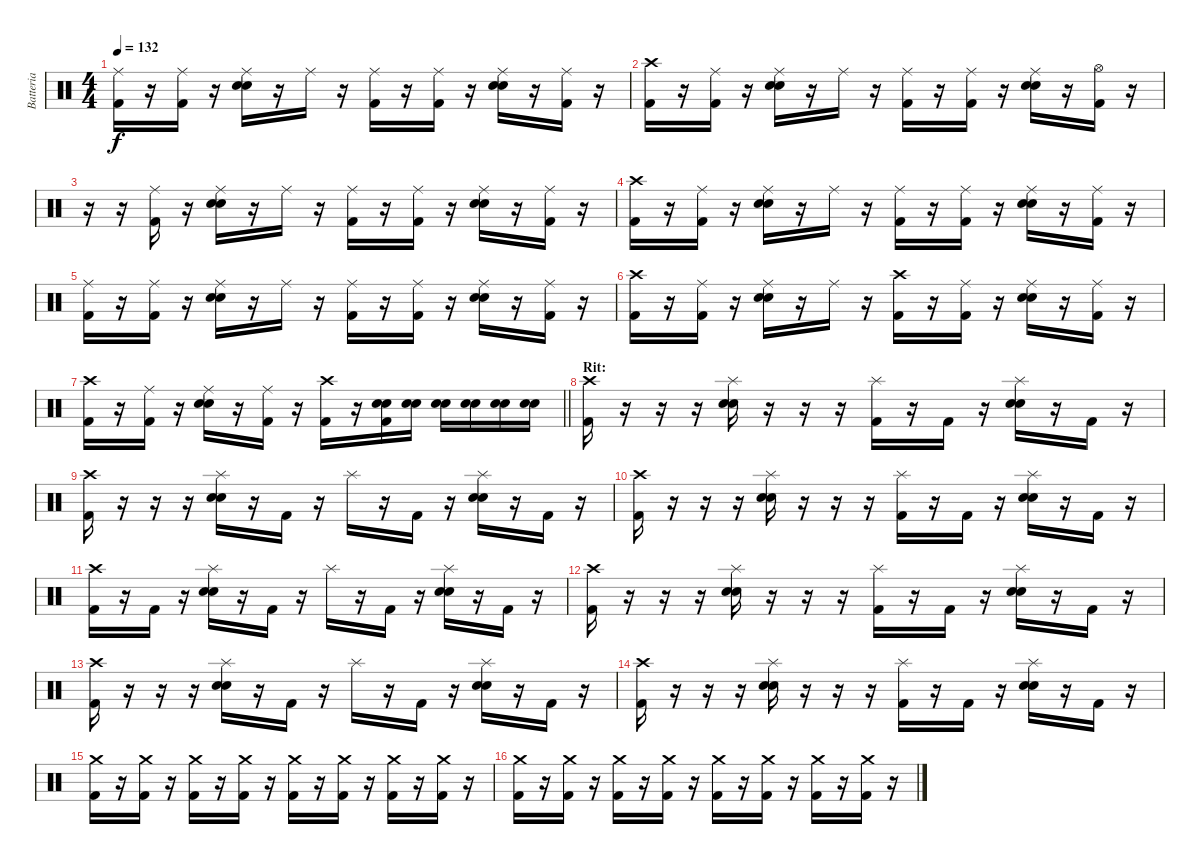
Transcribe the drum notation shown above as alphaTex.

\track ("Batteria" "Batteria") {instrument percussion}
\staff {score}
\articulation defaults
\ts (4 4)
\tempo 132
\clef neutral
\ks c
("Kick (hit) 2" "Ride (middle)").16{dy f} r.16 ("Kick (hit) 2" "Ride (middle)").16 r.16 ("Snare (hit) 2" "Snare (hit) 2" "Ride (middle)").16 r.16 "Ride (middle)".16 r.16 ("Kick (hit) 2" "Ride (middle)").16 r.16 ("Kick (hit) 2" "Ride (middle)").16 r.16 ("Snare (hit) 2" "Snare (hit) 2" "Ride (middle)").16 r.16 ("Kick (hit) 2" "Ride (middle)").16 r.16 |
("Kick (hit) 2" "Crash high (hit)").16 r.16 ("Kick (hit) 2" "Ride (middle)").16 r.16 ("Snare (hit) 2" "Snare (hit) 2" "Ride (middle)").16 r.16 "Ride (middle)".16 r.16 ("Kick (hit) 2" "Ride (middle)").16 r.16 ("Kick (hit) 2" "Ride (middle)").16 r.16 ("Snare (hit) 2" "Snare (hit) 2" "Ride (middle)").16 r.16 ("Kick (hit) 2" "Hi-Hat (open)").16 r.16 |
r.16 r.16 ("Kick (hit) 2" "Ride (middle)").16 r.16 ("Snare (hit) 2" "Snare (hit) 2" "Ride (middle)").16 r.16 "Ride (middle)".16 r.16 ("Kick (hit) 2" "Ride (middle)").16 r.16 ("Kick (hit) 2" "Ride (middle)").16 r.16 ("Snare (hit) 2" "Snare (hit) 2" "Ride (middle)").16 r.16 ("Kick (hit) 2" "Ride (middle)").16 r.16 |
("Kick (hit) 2" "Crash high (hit)").16 r.16 ("Kick (hit) 2" "Ride (middle)").16 r.16 ("Snare (hit) 2" "Snare (hit) 2" "Ride (middle)").16 r.16 "Ride (middle)".16 r.16 ("Kick (hit) 2" "Ride (middle)").16 r.16 ("Kick (hit) 2" "Ride (middle)").16 r.16 ("Snare (hit) 2" "Snare (hit) 2" "Ride (middle)").16 r.16 ("Kick (hit) 2" "Ride (middle)").16 r.16 |
("Kick (hit) 2" "Ride (middle)").16 r.16 ("Kick (hit) 2" "Ride (middle)").16 r.16 ("Snare (hit) 2" "Snare (hit) 2" "Ride (middle)").16 r.16 "Ride (middle)".16 r.16 ("Kick (hit) 2" "Ride (middle)").16 r.16 ("Kick (hit) 2" "Ride (middle)").16 r.16 ("Snare (hit) 2" "Snare (hit) 2" "Ride (middle)").16 r.16 ("Kick (hit) 2" "Ride (middle)").16 r.16 |
("Kick (hit) 2" "Crash high (hit)").16 r.16 ("Kick (hit) 2" "Ride (middle)").16 r.16 ("Snare (hit) 2" "Snare (hit) 2" "Ride (middle)").16 r.16 "Ride (middle)".16 r.16 ("Kick (hit) 2" "Crash high (hit)").16 r.16 ("Kick (hit) 2" "Ride (middle)").16 r.16 ("Snare (hit) 2" "Snare (hit) 2" "Ride (middle)").16 r.16 ("Kick (hit) 2" "Ride (middle)").16 r.16 |
\barLineRight lightlight
("Kick (hit) 2" "Crash high (hit)").16 r.16 ("Kick (hit) 2" "Ride (middle)").16 r.16 ("Snare (hit) 2" "Snare (hit) 2" "Ride (middle)").16 r.16 ("Kick (hit) 2" "Ride (middle)").16 r.16 ("Kick (hit) 2" "Crash high (hit)").16 r.16 ("Kick (hit) 2" "Snare (hit) 2" "Snare (hit) 2").16 ("Snare (hit) 2" "Snare (hit) 2").16 ("Snare (hit) 2" "Snare (hit) 2").16 ("Snare (hit) 2" "Snare (hit) 2").16 ("Snare (hit) 2" "Snare (hit) 2").16 ("Snare (hit) 2" "Snare (hit) 2").16 |
\section ("" "Rit:")
("Kick (hit) 2" "Crash high (hit)").16 r.16 r.16 r.16 ("Snare (hit) 2" "Snare (hit) 2" "Splash (hit)").16 r.16 r.16 r.16 ("Kick (hit) 2" "Splash (hit)").16 r.16 "Kick (hit) 2".16 r.16 ("Snare (hit) 2" "Snare (hit) 2" "Splash (hit)").16 r.16 "Kick (hit) 2".16 r.16 |
("Kick (hit) 2" "Crash high (hit)").16 r.16 r.16 r.16 ("Snare (hit) 2" "Snare (hit) 2" "Splash (hit)").16 r.16 "Kick (hit) 2".16 r.16 "Splash (hit)".16 r.16 "Kick (hit) 2".16 r.16 ("Snare (hit) 2" "Snare (hit) 2" "Splash (hit)").16 r.16 "Kick (hit) 2".16 r.16 |
("Kick (hit) 2" "Crash high (hit)").16 r.16 r.16 r.16 ("Snare (hit) 2" "Snare (hit) 2" "Splash (hit)").16 r.16 r.16 r.16 ("Kick (hit) 2" "Splash (hit)").16 r.16 "Kick (hit) 2".16 r.16 ("Snare (hit) 2" "Snare (hit) 2" "Splash (hit)").16 r.16 "Kick (hit) 2".16 r.16 |
("Kick (hit) 2" "Crash high (hit)").16 r.16 "Kick (hit) 2".16 r.16 ("Snare (hit) 2" "Snare (hit) 2" "Splash (hit)").16 r.16 "Kick (hit) 2".16 r.16 "Splash (hit)".16 r.16 "Kick (hit) 2".16 r.16 ("Snare (hit) 2" "Snare (hit) 2" "Splash (hit)").16 r.16 "Kick (hit) 2".16 r.16 |
("Kick (hit) 2" "Crash high (hit)").16 r.16 r.16 r.16 ("Snare (hit) 2" "Snare (hit) 2" "Splash (hit)").16 r.16 r.16 r.16 ("Kick (hit) 2" "Splash (hit)").16 r.16 "Kick (hit) 2".16 r.16 ("Snare (hit) 2" "Snare (hit) 2" "Splash (hit)").16 r.16 "Kick (hit) 2".16 r.16 |
("Kick (hit) 2" "Crash high (hit)").16 r.16 r.16 r.16 ("Snare (hit) 2" "Snare (hit) 2" "Splash (hit)").16 r.16 "Kick (hit) 2".16 r.16 "Splash (hit)".16 r.16 "Kick (hit) 2".16 r.16 ("Snare (hit) 2" "Snare (hit) 2" "Splash (hit)").16 r.16 "Kick (hit) 2".16 r.16 |
("Kick (hit) 2" "Crash high (hit)").16 r.16 r.16 r.16 ("Snare (hit) 2" "Snare (hit) 2" "Splash (hit)").16 r.16 r.16 r.16 ("Kick (hit) 2" "Splash (hit)").16 r.16 "Kick (hit) 2".16 r.16 ("Snare (hit) 2" "Snare (hit) 2" "Splash (hit)").16 r.16 "Kick (hit) 2".16 r.16 |
("Kick (hit) 2" "Crash medium (hit)").16 r.16 ("Kick (hit) 2" "Crash medium (hit)").16 r.16 ("Kick (hit) 2" "Crash medium (hit)").16 r.16 ("Kick (hit) 2" "Crash medium (hit)").16 r.16 ("Kick (hit) 2" "Crash medium (hit)").16 r.16 ("Kick (hit) 2" "Crash medium (hit)").16 r.16 ("Kick (hit) 2" "Crash medium (hit)").16 r.16 ("Kick (hit) 2" "Crash medium (hit)").16 r.16 |
("Kick (hit) 2" "Crash medium (hit)").16 r.16 ("Kick (hit) 2" "Crash medium (hit)").16 r.16 ("Kick (hit) 2" "Crash medium (hit)").16 r.16 ("Kick (hit) 2" "Crash medium (hit)").16 r.16 ("Kick (hit) 2" "Crash medium (hit)").16 r.16 ("Kick (hit) 2" "Crash medium (hit)").16 r.16 ("Kick (hit) 2" "Crash medium (hit)").16 r.16 ("Kick (hit) 2" "Crash medium (hit)").16 r.16
